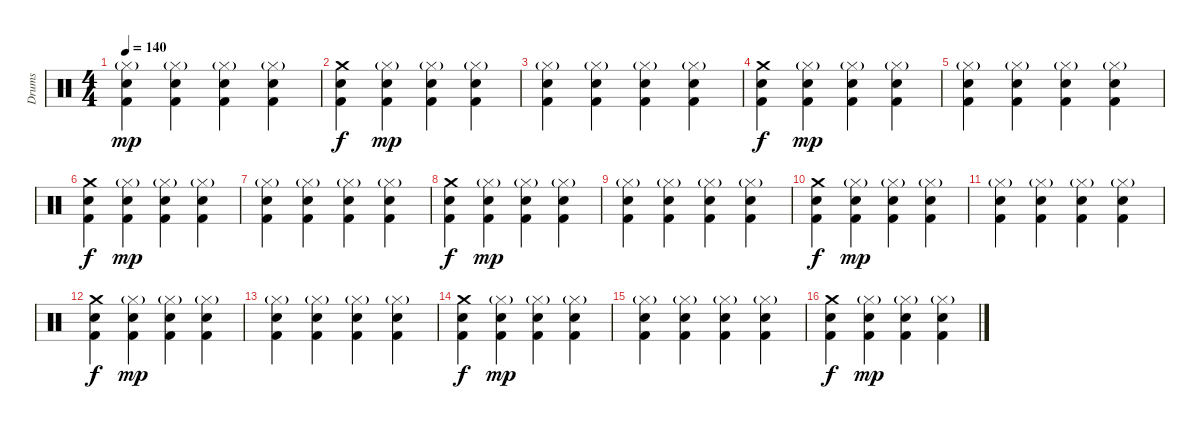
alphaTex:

\track ("Drums" "Drums") {instrument percussion}
\staff {score}
\articulation defaults
\ts (4 4)
\tempo 140
\clef neutral
\ks c
("Hi-Hat (closed)"{g} "Electric Snare (hit)" "Kick (hit) 2").4{dy mp} ("Hi-Hat (closed)"{g} "Electric Snare (hit)" "Kick (hit) 2").4 ("Hi-Hat (closed)"{g} "Electric Snare (hit)" "Kick (hit) 2").4 ("Hi-Hat (closed)"{g} "Electric Snare (hit)" "Kick (hit) 2").4 |
("Crash medium (hit)" "Electric Snare (hit)" "Kick (hit) 2").4{dy f} ("Hi-Hat (closed)"{g} "Electric Snare (hit)" "Kick (hit) 2").4{dy mp} ("Hi-Hat (closed)"{g} "Electric Snare (hit)" "Kick (hit) 2").4 ("Hi-Hat (closed)"{g} "Electric Snare (hit)" "Kick (hit) 2").4 |
("Hi-Hat (closed)"{g} "Electric Snare (hit)" "Kick (hit) 2").4 ("Hi-Hat (closed)"{g} "Electric Snare (hit)" "Kick (hit) 2").4 ("Hi-Hat (closed)"{g} "Electric Snare (hit)" "Kick (hit) 2").4 ("Hi-Hat (closed)"{g} "Electric Snare (hit)" "Kick (hit) 2").4 |
("Crash medium (hit)" "Electric Snare (hit)" "Kick (hit) 2").4{dy f} ("Hi-Hat (closed)"{g} "Electric Snare (hit)" "Kick (hit) 2").4{dy mp} ("Hi-Hat (closed)"{g} "Electric Snare (hit)" "Kick (hit) 2").4 ("Hi-Hat (closed)"{g} "Electric Snare (hit)" "Kick (hit) 2").4 |
("Hi-Hat (closed)"{g} "Electric Snare (hit)" "Kick (hit) 2").4 ("Hi-Hat (closed)"{g} "Electric Snare (hit)" "Kick (hit) 2").4 ("Hi-Hat (closed)"{g} "Electric Snare (hit)" "Kick (hit) 2").4 ("Hi-Hat (closed)"{g} "Electric Snare (hit)" "Kick (hit) 2").4 |
("Crash medium (hit)" "Electric Snare (hit)" "Kick (hit) 2").4{dy f} ("Hi-Hat (closed)"{g} "Electric Snare (hit)" "Kick (hit) 2").4{dy mp} ("Hi-Hat (closed)"{g} "Electric Snare (hit)" "Kick (hit) 2").4 ("Hi-Hat (closed)"{g} "Electric Snare (hit)" "Kick (hit) 2").4 |
("Hi-Hat (closed)"{g} "Electric Snare (hit)" "Kick (hit) 2").4 ("Hi-Hat (closed)"{g} "Electric Snare (hit)" "Kick (hit) 2").4 ("Hi-Hat (closed)"{g} "Electric Snare (hit)" "Kick (hit) 2").4 ("Hi-Hat (closed)"{g} "Electric Snare (hit)" "Kick (hit) 2").4 |
("Crash medium (hit)" "Electric Snare (hit)" "Kick (hit) 2").4{dy f} ("Hi-Hat (closed)"{g} "Electric Snare (hit)" "Kick (hit) 2").4{dy mp} ("Hi-Hat (closed)"{g} "Electric Snare (hit)" "Kick (hit) 2").4 ("Hi-Hat (closed)"{g} "Electric Snare (hit)" "Kick (hit) 2").4 |
("Hi-Hat (closed)"{g} "Electric Snare (hit)" "Kick (hit) 2").4 ("Hi-Hat (closed)"{g} "Electric Snare (hit)" "Kick (hit) 2").4 ("Hi-Hat (closed)"{g} "Electric Snare (hit)" "Kick (hit) 2").4 ("Hi-Hat (closed)"{g} "Electric Snare (hit)" "Kick (hit) 2").4 |
("Crash medium (hit)" "Electric Snare (hit)" "Kick (hit) 2").4{dy f} ("Hi-Hat (closed)"{g} "Electric Snare (hit)" "Kick (hit) 2").4{dy mp} ("Hi-Hat (closed)"{g} "Electric Snare (hit)" "Kick (hit) 2").4 ("Hi-Hat (closed)"{g} "Electric Snare (hit)" "Kick (hit) 2").4 |
("Hi-Hat (closed)"{g} "Electric Snare (hit)" "Kick (hit) 2").4 ("Hi-Hat (closed)"{g} "Electric Snare (hit)" "Kick (hit) 2").4 ("Hi-Hat (closed)"{g} "Electric Snare (hit)" "Kick (hit) 2").4 ("Hi-Hat (closed)"{g} "Electric Snare (hit)" "Kick (hit) 2").4 |
("Crash medium (hit)" "Electric Snare (hit)" "Kick (hit) 2").4{dy f} ("Hi-Hat (closed)"{g} "Electric Snare (hit)" "Kick (hit) 2").4{dy mp} ("Hi-Hat (closed)"{g} "Electric Snare (hit)" "Kick (hit) 2").4 ("Hi-Hat (closed)"{g} "Electric Snare (hit)" "Kick (hit) 2").4 |
("Hi-Hat (closed)"{g} "Electric Snare (hit)" "Kick (hit) 2").4 ("Hi-Hat (closed)"{g} "Electric Snare (hit)" "Kick (hit) 2").4 ("Hi-Hat (closed)"{g} "Electric Snare (hit)" "Kick (hit) 2").4 ("Hi-Hat (closed)"{g} "Electric Snare (hit)" "Kick (hit) 2").4 |
("Crash medium (hit)" "Electric Snare (hit)" "Kick (hit) 2").4{dy f} ("Hi-Hat (closed)"{g} "Electric Snare (hit)" "Kick (hit) 2").4{dy mp} ("Hi-Hat (closed)"{g} "Electric Snare (hit)" "Kick (hit) 2").4 ("Hi-Hat (closed)"{g} "Electric Snare (hit)" "Kick (hit) 2").4 |
("Hi-Hat (closed)"{g} "Electric Snare (hit)" "Kick (hit) 2").4 ("Hi-Hat (closed)"{g} "Electric Snare (hit)" "Kick (hit) 2").4 ("Hi-Hat (closed)"{g} "Electric Snare (hit)" "Kick (hit) 2").4 ("Hi-Hat (closed)"{g} "Electric Snare (hit)" "Kick (hit) 2").4 |
("Crash medium (hit)" "Electric Snare (hit)" "Kick (hit) 2").4{dy f} ("Hi-Hat (closed)"{g} "Electric Snare (hit)" "Kick (hit) 2").4{dy mp} ("Hi-Hat (closed)"{g} "Electric Snare (hit)" "Kick (hit) 2").4 ("Hi-Hat (closed)"{g} "Electric Snare (hit)" "Kick (hit) 2").4
